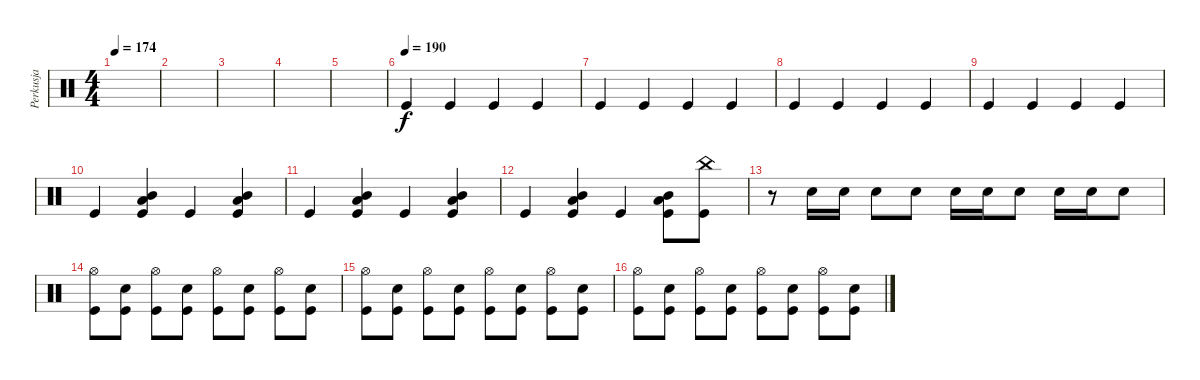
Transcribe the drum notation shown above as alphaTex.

\track ("Perkusja" "Perkusja") {instrument percussion}
\staff {score}
\articulation defaults
\ts (4 4)
\tempo 174
\clef neutral
\ks c
|
|
|
|
|
\tempo (190)
"Kick (hit)".4 "Kick (hit)".4 "Kick (hit)".4 "Kick (hit)".4 |
"Kick (hit)".4 "Kick (hit)".4 "Kick (hit)".4 "Kick (hit)".4 |
"Kick (hit)".4 "Kick (hit)".4 "Kick (hit)".4 "Kick (hit)".4 |
"Kick (hit)".4 "Kick (hit)".4 "Kick (hit)".4 "Kick (hit)".4 |
"Kick (hit)".4 ("Mid Tom (hit)" "Low Tom (hit)" "Kick (hit)").4 "Kick (hit)".4 ("Mid Tom (hit)" "Low Tom (hit)" "Kick (hit)").4 |
"Kick (hit)".4 ("Low Tom (hit)" "Mid Tom (hit)" "Kick (hit)").4 "Kick (hit)".4 ("Low Tom (hit)" "Mid Tom (hit)" "Kick (hit)").4 |
"Kick (hit)".4 ("Mid Tom (hit)" "Low Tom (hit)" "Kick (hit)").4 "Kick (hit)".4 ("Mid Tom (hit)" "Low Tom (hit)" "Kick (hit)").8 ("China (hit)" "Kick (hit)").8 |
r.8 "Electric Snare (hit)".16 "Electric Snare (hit)".16 "Electric Snare (hit)".8 "Electric Snare (hit)".8 "Electric Snare (hit)".16 "Electric Snare (hit)".16 "Electric Snare (hit)".8 "Electric Snare (hit)".16 "Electric Snare (hit)".16 "Electric Snare (hit)".8 |
("Hi-Hat (open)" "Kick (hit)").8 ("Electric Snare (hit)" "Kick (hit)").8 ("Hi-Hat (open)" "Kick (hit)").8 ("Electric Snare (hit)" "Kick (hit)").8 ("Hi-Hat (open)" "Kick (hit)").8 ("Electric Snare (hit)" "Kick (hit)").8 ("Hi-Hat (open)" "Kick (hit)").8 ("Electric Snare (hit)" "Kick (hit)").8 |
("Hi-Hat (open)" "Kick (hit)").8 ("Electric Snare (hit)" "Kick (hit)").8 ("Hi-Hat (open)" "Kick (hit)").8 ("Electric Snare (hit)" "Kick (hit)").8 ("Hi-Hat (open)" "Kick (hit)").8 ("Electric Snare (hit)" "Kick (hit)").8 ("Hi-Hat (open)" "Kick (hit)").8 ("Electric Snare (hit)" "Kick (hit)").8 |
("Hi-Hat (open)" "Kick (hit)").8 ("Electric Snare (hit)" "Kick (hit)").8 ("Hi-Hat (open)" "Kick (hit)").8 ("Electric Snare (hit)" "Kick (hit)").8 ("Hi-Hat (open)" "Kick (hit)").8 ("Electric Snare (hit)" "Kick (hit)").8 ("Hi-Hat (open)" "Kick (hit)").8 ("Electric Snare (hit)" "Kick (hit)").8
